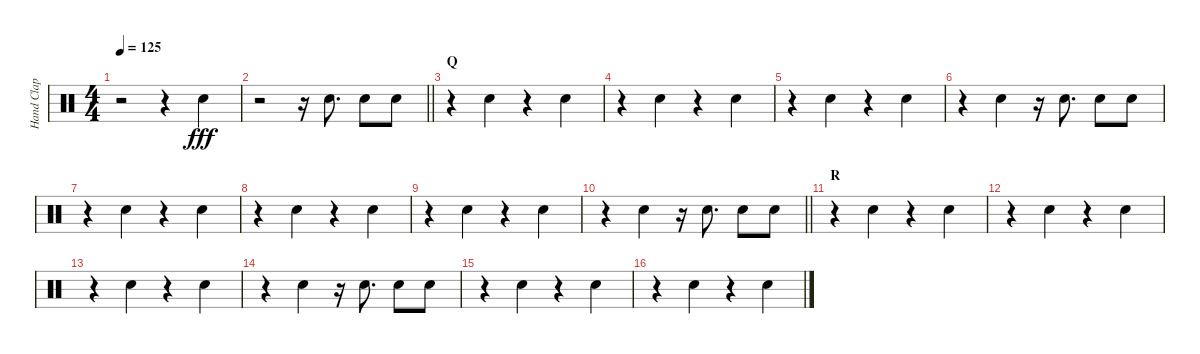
\track ("Hand Clap" "Hand Clap") {instrument percussion}
\staff {score}
\articulation defaults
\ts (4 4)
\tempo 125
\clef neutral
\ks c
r.2{dy fff} r.4 "Hand Clap (hit)".4 |
\barLineRight lightlight
r.2 r.16 "Hand Clap (hit)".8{d} "Hand Clap (hit)".8 "Hand Clap (hit)".8 |
\section ("" "Q")
r.4 "Hand Clap (hit)".4 r.4 "Hand Clap (hit)".4 |
r.4 "Hand Clap (hit)".4 r.4 "Hand Clap (hit)".4 |
r.4 "Hand Clap (hit)".4 r.4 "Hand Clap (hit)".4 |
r.4 "Hand Clap (hit)".4 r.16 "Hand Clap (hit)".8{d} "Hand Clap (hit)".8 "Hand Clap (hit)".8 |
r.4 "Hand Clap (hit)".4 r.4 "Hand Clap (hit)".4 |
r.4 "Hand Clap (hit)".4 r.4 "Hand Clap (hit)".4 |
r.4 "Hand Clap (hit)".4 r.4 "Hand Clap (hit)".4 |
\barLineRight lightlight
r.4 "Hand Clap (hit)".4 r.16 "Hand Clap (hit)".8{d} "Hand Clap (hit)".8 "Hand Clap (hit)".8 |
\section ("" "R")
r.4 "Hand Clap (hit)".4 r.4 "Hand Clap (hit)".4 |
r.4 "Hand Clap (hit)".4 r.4 "Hand Clap (hit)".4 |
r.4 "Hand Clap (hit)".4 r.4 "Hand Clap (hit)".4 |
r.4 "Hand Clap (hit)".4 r.16 "Hand Clap (hit)".8{d} "Hand Clap (hit)".8 "Hand Clap (hit)".8 |
r.4 "Hand Clap (hit)".4 r.4 "Hand Clap (hit)".4 |
r.4 "Hand Clap (hit)".4 r.4 "Hand Clap (hit)".4
